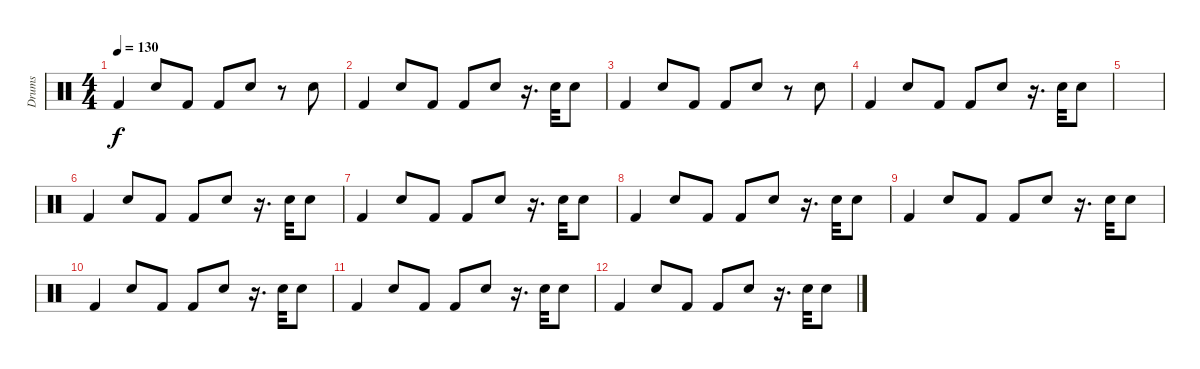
\track ("Drums" "Drums") {instrument percussion}
\staff {score}
\articulation defaults
\ts (4 4)
\tempo 130
\clef neutral
\ks c "Kick (hit) 2".4{dy f} "Snare (hit) 2".8 "Kick (hit) 2".8 "Kick (hit) 2".8 "Snare (hit) 2".8
r.8 "Snare (hit) 2".8 |
"Kick (hit) 2".4 "Snare (hit) 2".8 "Kick (hit) 2".8 "Kick (hit) 2".8 "Snare (hit) 2".8 r.16{d} "Snare (hit) 2".32 "Snare (hit) 2".8 |
"Kick (hit) 2".4 "Snare (hit) 2".8 "Kick (hit) 2".8 "Kick (hit) 2".8 "Snare (hit) 2".8 r.8 "Snare (hit) 2".8 |
"Kick (hit) 2".4 "Snare (hit) 2".8 "Kick (hit) 2".8 "Kick (hit) 2".8 "Snare (hit) 2".8 r.16{d} "Snare (hit) 2".32 "Snare (hit) 2".8 |
|
"Kick (hit) 2".4 "Snare (hit) 2".8 "Kick (hit) 2".8 "Kick (hit) 2".8 "Snare (hit) 2".8 r.16{d} "Snare (hit) 2".32 "Snare (hit) 2".8 |
"Kick (hit) 2".4 "Snare (hit) 2".8 "Kick (hit) 2".8 "Kick (hit) 2".8 "Snare (hit) 2".8 r.16{d} "Snare (hit) 2".32 "Snare (hit) 2".8 |
"Kick (hit) 2".4 "Snare (hit) 2".8 "Kick (hit) 2".8 "Kick (hit) 2".8 "Snare (hit) 2".8 r.16{d} "Snare (hit) 2".32 "Snare (hit) 2".8 |
"Kick (hit) 2".4 "Snare (hit) 2".8 "Kick (hit) 2".8 "Kick (hit) 2".8 "Snare (hit) 2".8 r.16{d} "Snare (hit) 2".32 "Snare (hit) 2".8 |
"Kick (hit) 2".4 "Snare (hit) 2".8 "Kick (hit) 2".8 "Kick (hit) 2".8 "Snare (hit) 2".8 r.16{d} "Snare (hit) 2".32 "Snare (hit) 2".8 |
"Kick (hit) 2".4 "Snare (hit) 2".8 "Kick (hit) 2".8 "Kick (hit) 2".8 "Snare (hit) 2".8 r.16{d} "Snare (hit) 2".32 "Snare (hit) 2".8 |
"Kick (hit) 2".4 "Snare (hit) 2".8 "Kick (hit) 2".8 "Kick (hit) 2".8 "Snare (hit) 2".8 r.16{d} "Snare (hit) 2".32 "Snare (hit) 2".8
